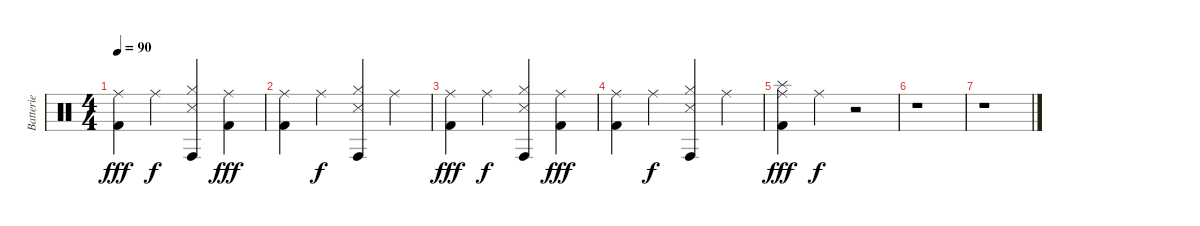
\track ("Batterie" "Batterie") {instrument percussion}
\staff {score}
\articulation defaults
\ts (4 4)
\tempo 90
\clef neutral
\ks c
("Ride (middle)" "Kick (hit) 2").4{dy fff} "Ride (middle)".4{dy f} ("Snare (side stick) 3" "Hi-Hat (closed)" "Conga high (hit)").4 ("Ride (middle)" "Kick (hit) 2").4{dy fff} |
("Ride (middle)" "Kick (hit) 2").4 "Ride (middle)".4{dy f} ("Snare (side stick) 3" "Hi-Hat (closed)" "Conga high (hit)").4 "Ride (middle)".4 |
("Ride (middle)" "Kick (hit) 2").4{dy fff} "Ride (middle)".4{dy f} ("Snare (side stick) 3" "Hi-Hat (closed)" "Conga high (hit)").4 ("Ride (middle)" "Kick (hit) 2").4{dy fff} |
("Ride (middle)" "Kick (hit) 2").4 "Ride (middle)".4{dy f} ("Snare (side stick) 3" "Hi-Hat (closed)" "Conga high (hit)").4 "Ride (middle)".4 |
("Ride (middle)" "Kick (hit) 2" "Splash (hit)").4{dy fff} "Ride (middle)".4{dy f} r.2 |
r.1 |
r.1
